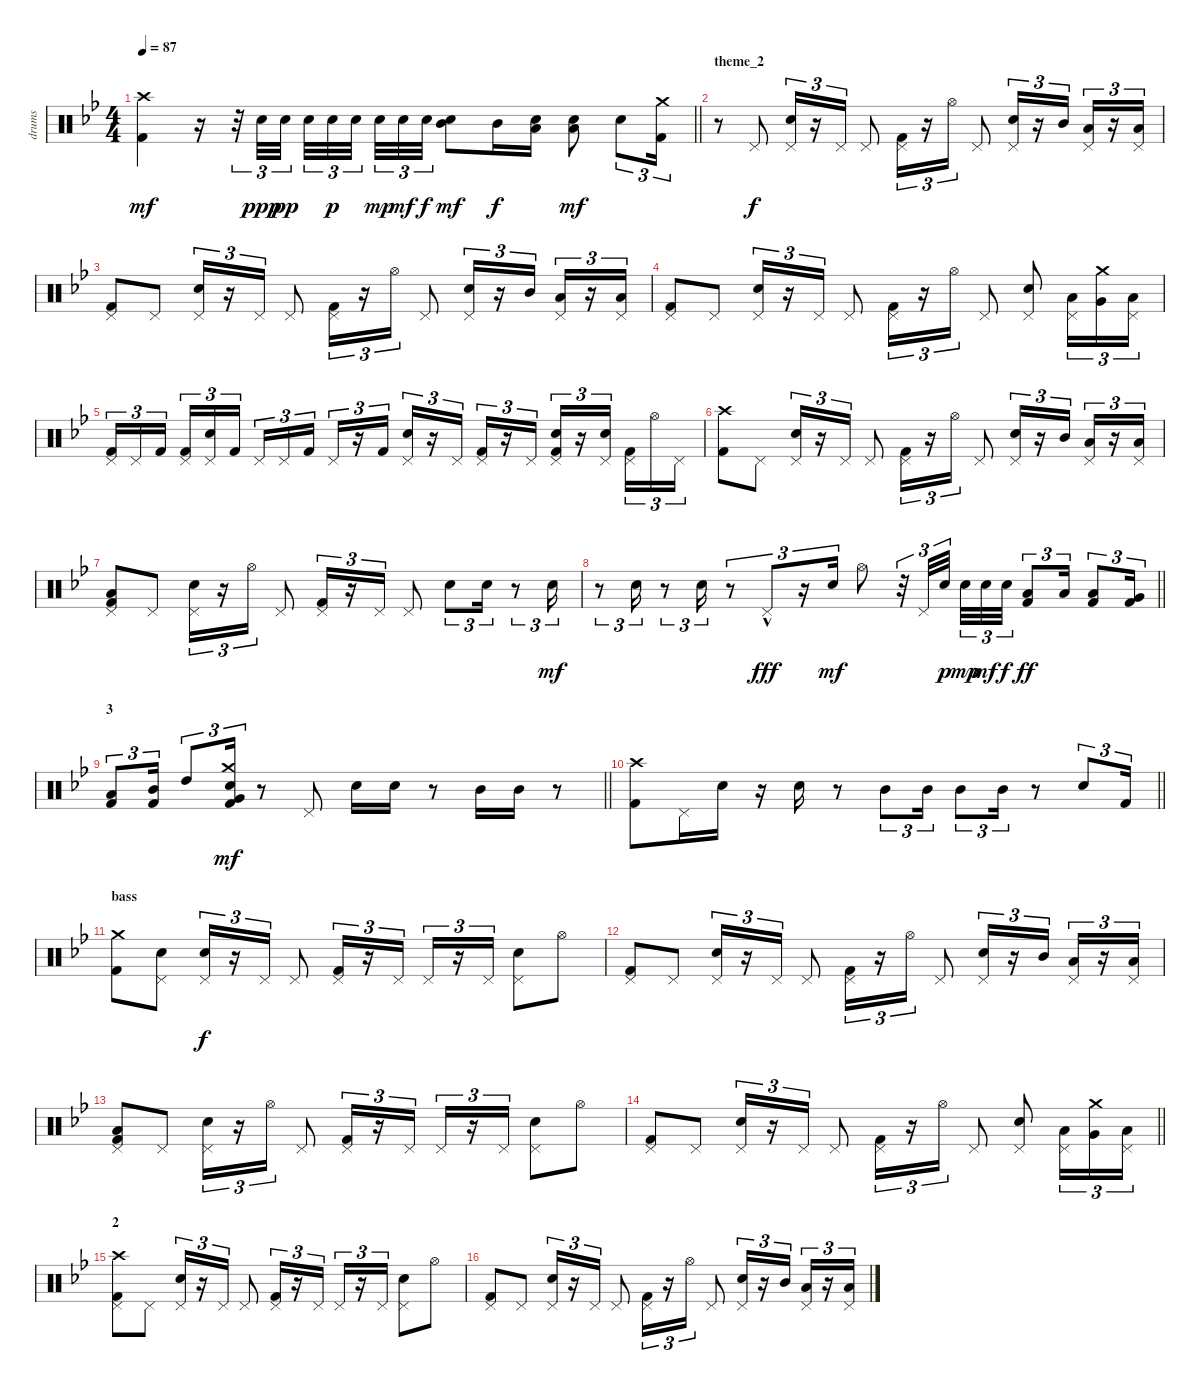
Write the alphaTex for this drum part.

\track ("drums" "drums") {instrument percussion}
\staff {score}
\articulation defaults
\ts (4 4)
\tempo 87
\clef neutral
\barLineRight lightlight
\ks gminor
("Crash high (hit)" "Kick (hit) 2").4{dy mf} r.16 r.32{tu (3 2)} "Electric Snare (hit)".32{tu (3 2) dy ppp} "Electric Snare (hit)".32{tu (3 2) dy pp beam splitsecondary} "Electric Snare (hit)".32{tu (3 2)} "Electric Snare (hit)".32{tu (3 2) dy p} "Electric Snare (hit)".32{tu (3 2) beam splitsecondary} "Electric Snare (hit)".32{tu (3 2) dy mp} "Electric Snare (hit)".32{tu (3 2) dy mf} "Electric Snare (hit)".32{tu (3 2) dy f} ("Electric Snare (hit)" "Mid Tom (hit)").8{dy mf} "Mid Tom (hit)".16{dy f} ("Electric Snare (hit)" "Low Tom (hit)").16 ("Electric Snare (hit)" "Low Tom (hit)").8{dy mf} "Electric Snare (hit)".8{tu (3 2)} ("Crash medium (hit)" "Kick (hit) 2").16{tu (3 2)} |
\section ("" "theme_2")
r.8 "Pedal Hi-Hat (hit)".8{dy f} ("Pedal Hi-Hat (hit)" "Electric Snare (hit)").16{tu (3 2)} r.16{tu (3 2)} "Pedal Hi-Hat (hit)".16{tu (3 2)} "Pedal Hi-Hat (hit)".8 ("Pedal Hi-Hat (hit)" "Kick (hit) 2").16{tu (3 2)} r.16{tu (3 2)} "Hi-Hat (open)".16{tu (3 2)} "Pedal Hi-Hat (hit)".8 ("Pedal Hi-Hat (hit)" "Electric Snare (hit)").16{tu (3 2)} r.16{tu (3 2)} "Mid Tom (hit)".16{tu (3 2)} ("Pedal Hi-Hat (hit)" "Low Tom (hit)").16{tu (3 2)} r.16{tu (3 2)} ("Pedal Hi-Hat (hit)" "Low Floor Tom (hit)").16{tu (3 2)} |
("Pedal Hi-Hat (hit)" "Kick (hit) 2").8 "Pedal Hi-Hat (hit)".8 ("Pedal Hi-Hat (hit)" "Electric Snare (hit)").16{tu (3 2)} r.16{tu (3 2)} "Pedal Hi-Hat (hit)".16{tu (3 2)} "Pedal Hi-Hat (hit)".8 ("Pedal Hi-Hat (hit)" "Kick (hit) 2").16{tu (3 2)} r.16{tu (3 2)} "Hi-Hat (open)".16{tu (3 2)} "Pedal Hi-Hat (hit)".8 ("Pedal Hi-Hat (hit)" "Electric Snare (hit)").16{tu (3 2)} r.16{tu (3 2)} "Mid Tom (hit)".16{tu (3 2)} ("Pedal Hi-Hat (hit)" "Low Tom (hit)").16{tu (3 2)} r.16{tu (3 2)} ("Pedal Hi-Hat (hit)" "Low Floor Tom (hit)").16{tu (3 2)} |
("Pedal Hi-Hat (hit)" "Kick (hit) 2").8 "Pedal Hi-Hat (hit)".8 ("Pedal Hi-Hat (hit)" "Electric Snare (hit)").16{tu (3 2)} r.16{tu (3 2)} "Pedal Hi-Hat (hit)".16{tu (3 2)} "Pedal Hi-Hat (hit)".8 ("Pedal Hi-Hat (hit)" "Kick (hit) 2").16{tu (3 2)} r.16{tu (3 2)} "Hi-Hat (open)".16{tu (3 2)} "Pedal Hi-Hat (hit)".8 ("Pedal Hi-Hat (hit)" "Electric Snare (hit)").8 ("Pedal Hi-Hat (hit)" "Low Tom (hit)").16{tu (3 2)} ("Crash medium (hit)" "Very Low Tom (hit)").16{tu (3 2)} ("Pedal Hi-Hat (hit)" "Low Floor Tom (hit)").16{tu (3 2)} |
("Pedal Hi-Hat (hit)" "Kick (hit) 2").16{tu (3 2)} "Pedal Hi-Hat (hit)".16{tu (3 2)} "Kick (hit) 2".16{tu (3 2) beam splitsecondary} ("Pedal Hi-Hat (hit)" "Kick (hit) 2").16{tu (3 2)} ("Pedal Hi-Hat (hit)" "Electric Snare (hit)").16{tu (3 2)} "Kick (hit) 2".16{tu (3 2)} "Pedal Hi-Hat (hit)".16{tu (3 2)} "Pedal Hi-Hat (hit)".16{tu (3 2)} "Kick (hit) 2".16{tu (3 2) beam splitsecondary} "Pedal Hi-Hat (hit)".16{tu (3 2)} r.16{tu (3 2)} "Kick (hit) 2".16{tu (3 2)} ("Pedal Hi-Hat (hit)" "Electric Snare (hit)").16{tu (3 2)} r.16{tu (3 2)} "Pedal Hi-Hat (hit)".16{tu (3 2)} ("Pedal Hi-Hat (hit)" "Kick (hit) 2").16{tu (3 2)} r.16{tu (3 2)} "Pedal Hi-Hat (hit)".16{tu (3 2)} ("Pedal Hi-Hat (hit)" "Electric Snare (hit)" "Kick (hit) 2").16{tu (3 2)} r.16{tu (3 2)} ("Pedal Hi-Hat (hit)" "Electric Snare (hit)").16{tu (3 2) beam splitsecondary} ("Pedal Hi-Hat (hit)" "Kick (hit) 2").16{tu (3 2)} "Hi-Hat (open)".16{tu (3 2)} "Pedal Hi-Hat (hit)".16{tu (3 2)} |
("Crash high (hit)" "Kick (hit) 2").8 "Pedal Hi-Hat (hit)".8 ("Pedal Hi-Hat (hit)" "Electric Snare (hit)").16{tu (3 2)} r.16{tu (3 2)} "Pedal Hi-Hat (hit)".16{tu (3 2)} "Pedal Hi-Hat (hit)".8 ("Pedal Hi-Hat (hit)" "Kick (hit) 2").16{tu (3 2)} r.16{tu (3 2)} "Hi-Hat (open)".16{tu (3 2)} "Pedal Hi-Hat (hit)".8 ("Pedal Hi-Hat (hit)" "Electric Snare (hit)").16{tu (3 2)} r.16{tu (3 2)} "Mid Tom (hit)".16{tu (3 2)} ("Pedal Hi-Hat (hit)" "Low Tom (hit)").16{tu (3 2)} r.16{tu (3 2)} ("Pedal Hi-Hat (hit)" "Low Floor Tom (hit)").16{tu (3 2)} |
("Pedal Hi-Hat (hit)" "Low Floor Tom (hit)" "Kick (hit) 2").8 "Pedal Hi-Hat (hit)".8 ("Pedal Hi-Hat (hit)" "Electric Snare (hit)").16{tu (3 2)} r.16{tu (3 2)} "Hi-Hat (open)".16{tu (3 2)} "Pedal Hi-Hat (hit)".8 ("Pedal Hi-Hat (hit)" "Kick (hit) 2").16{tu (3 2)} r.16{tu (3 2)} "Pedal Hi-Hat (hit)".16{tu (3 2)} "Pedal Hi-Hat (hit)".8 "Electric Snare (hit)".8{tu (3 2)} "Electric Snare (hit)".16{tu (3 2)} r.8{tu (3 2)} "Electric Snare (hit)".16{tu (3 2) dy mf} |
\barLineRight lightlight
r.8{tu (3 2)} "Electric Snare (hit)".16{tu (3 2)} r.8{tu (3 2)} "Electric Snare (hit)".16{tu (3 2)} r.8{tu (3 2)} "Pedal Hi-Hat (hit)"{hac}.8{tu (3 2) dy fff} r.16{tu (3 2)} "Electric Snare (hit)".16{tu (3 2) dy mf} "Hi-Hat (open)".8 r.32{tu (3 2)} "Pedal Hi-Hat (hit)".32{tu (3 2)} "Electric Snare (hit)".32{tu (3 2) dy p beam splitsecondary} "Electric Snare (hit)".32{tu (3 2) dy mp} "Electric Snare (hit)".32{tu (3 2) dy mf} "Electric Snare (hit)".32{tu (3 2) dy f} ("Low Tom (hit)" "Kick (hit) 2").8{tu (3 2) dy ff} "Low Floor Tom (hit)".16{tu (3 2)} ("Low Floor Tom (hit)" "Kick (hit) 2").8{tu (3 2)} ("Very Low Tom (hit)" "Kick (hit) 2").16{tu (3 2)} |
\section ("" "3")
\barLineRight lightlight
("Low Tom (hit)" "Kick (hit) 2").8{tu (3 2)} ("Mid Tom (hit)" "Kick (hit) 2").16{tu (3 2)} "High Tom (hit)".8{tu (3 2)} ("Crash medium (hit)" "Electric Snare (hit)" "Very Low Tom (hit)" "Kick (hit) 2").16{tu (3 2) dy mf} r.8 "Pedal Hi-Hat (hit)".8 "Electric Snare (hit)".16 "Electric Snare (hit)".16 r.8 "Mid Tom (hit)".16 "Mid Tom (hit)".16 r.8 |
\barLineRight lightlight
("Crash high (hit)" "Kick (hit) 2").8 "Pedal Hi-Hat (hit)".16 "Electric Snare (hit)".16 r.16 "Electric Snare (hit)".16 r.8 "Mid Tom (hit)".8{tu (3 2)} "Mid Tom (hit)".16{tu (3 2)} "Mid Tom (hit)".8{tu (3 2)} "Mid Tom (hit)".16{tu (3 2)} r.8 "Electric Snare (hit)".8{tu (3 2)} "Kick (hit) 2".16{tu (3 2)} |
\section ("" "bass")
("Crash medium (hit)" "Kick (hit) 2").8 ("Pedal Hi-Hat (hit)" "Electric Snare (hit)").8 ("Pedal Hi-Hat (hit)" "Electric Snare (hit)").16{tu (3 2) dy f} r.16{tu (3 2)} "Pedal Hi-Hat (hit)".16{tu (3 2)} "Pedal Hi-Hat (hit)".8 ("Pedal Hi-Hat (hit)" "Kick (hit) 2").16{tu (3 2)} r.16{tu (3 2)} "Pedal Hi-Hat (hit)".16{tu (3 2)} "Pedal Hi-Hat (hit)".16{tu (3 2)} r.16{tu (3 2)} "Pedal Hi-Hat (hit)".16{tu (3 2)} ("Pedal Hi-Hat (hit)" "Electric Snare (hit)").8 "Hi-Hat (open)".8 |
("Pedal Hi-Hat (hit)" "Kick (hit) 2").8 "Pedal Hi-Hat (hit)".8 ("Pedal Hi-Hat (hit)" "Electric Snare (hit)").16{tu (3 2)} r.16{tu (3 2)} "Pedal Hi-Hat (hit)".16{tu (3 2)} "Pedal Hi-Hat (hit)".8 ("Pedal Hi-Hat (hit)" "Kick (hit) 2").16{tu (3 2)} r.16{tu (3 2)} "Hi-Hat (open)".16{tu (3 2)} "Pedal Hi-Hat (hit)".8 ("Pedal Hi-Hat (hit)" "Electric Snare (hit)").16{tu (3 2)} r.16{tu (3 2)} "Mid Tom (hit)".16{tu (3 2)} ("Pedal Hi-Hat (hit)" "Low Tom (hit)").16{tu (3 2)} r.16{tu (3 2)} ("Pedal Hi-Hat (hit)" "Low Floor Tom (hit)").16{tu (3 2)} |
("Pedal Hi-Hat (hit)" "Low Floor Tom (hit)" "Kick (hit) 2").8 "Pedal Hi-Hat (hit)".8 ("Pedal Hi-Hat (hit)" "Electric Snare (hit)").16{tu (3 2)} r.16{tu (3 2)} "Hi-Hat (open)".16{tu (3 2)} "Pedal Hi-Hat (hit)".8 ("Pedal Hi-Hat (hit)" "Kick (hit) 2").16{tu (3 2)} r.16{tu (3 2)} "Pedal Hi-Hat (hit)".16{tu (3 2)} "Pedal Hi-Hat (hit)".16{tu (3 2)} r.16{tu (3 2)} "Pedal Hi-Hat (hit)".16{tu (3 2)} ("Pedal Hi-Hat (hit)" "Electric Snare (hit)").8 "Hi-Hat (open)".8 |
\barLineRight lightlight
("Pedal Hi-Hat (hit)" "Kick (hit) 2").8 "Pedal Hi-Hat (hit)".8 ("Pedal Hi-Hat (hit)" "Electric Snare (hit)").16{tu (3 2)} r.16{tu (3 2)} "Pedal Hi-Hat (hit)".16{tu (3 2)} "Pedal Hi-Hat (hit)".8 ("Pedal Hi-Hat (hit)" "Kick (hit) 2").16{tu (3 2)} r.16{tu (3 2)} "Hi-Hat (open)".16{tu (3 2)} "Pedal Hi-Hat (hit)".8 ("Pedal Hi-Hat (hit)" "Electric Snare (hit)").8 ("Pedal Hi-Hat (hit)" "Low Tom (hit)").16{tu (3 2)} ("Crash medium (hit)" "Very Low Tom (hit)").16{tu (3 2)} ("Pedal Hi-Hat (hit)" "Low Floor Tom (hit)").16{tu (3 2)} |
\section ("" "2")
("Crash high (hit)" "Pedal Hi-Hat (hit)" "Kick (hit) 2").8 "Pedal Hi-Hat (hit)".8 ("Pedal Hi-Hat (hit)" "Electric Snare (hit)").16{tu (3 2)} r.16{tu (3 2)} "Pedal Hi-Hat (hit)".16{tu (3 2)} "Pedal Hi-Hat (hit)".8 ("Pedal Hi-Hat (hit)" "Kick (hit) 2").16{tu (3 2)} r.16{tu (3 2)} "Pedal Hi-Hat (hit)".16{tu (3 2)} "Pedal Hi-Hat (hit)".16{tu (3 2)} r.16{tu (3 2)} "Pedal Hi-Hat (hit)".16{tu (3 2)} ("Pedal Hi-Hat (hit)" "Electric Snare (hit)").8 "Hi-Hat (open)".8 |
("Pedal Hi-Hat (hit)" "Kick (hit) 2").8 "Pedal Hi-Hat (hit)".8 ("Pedal Hi-Hat (hit)" "Electric Snare (hit)").16{tu (3 2)} r.16{tu (3 2)} "Pedal Hi-Hat (hit)".16{tu (3 2)} "Pedal Hi-Hat (hit)".8 ("Pedal Hi-Hat (hit)" "Kick (hit) 2").16{tu (3 2)} r.16{tu (3 2)} "Hi-Hat (open)".16{tu (3 2)} "Pedal Hi-Hat (hit)".8 ("Pedal Hi-Hat (hit)" "Electric Snare (hit)").16{tu (3 2)} r.16{tu (3 2)} "Mid Tom (hit)".16{tu (3 2)} ("Pedal Hi-Hat (hit)" "Low Tom (hit)").16{tu (3 2)} r.16{tu (3 2)} ("Pedal Hi-Hat (hit)" "Low Floor Tom (hit)").16{tu (3 2)}
